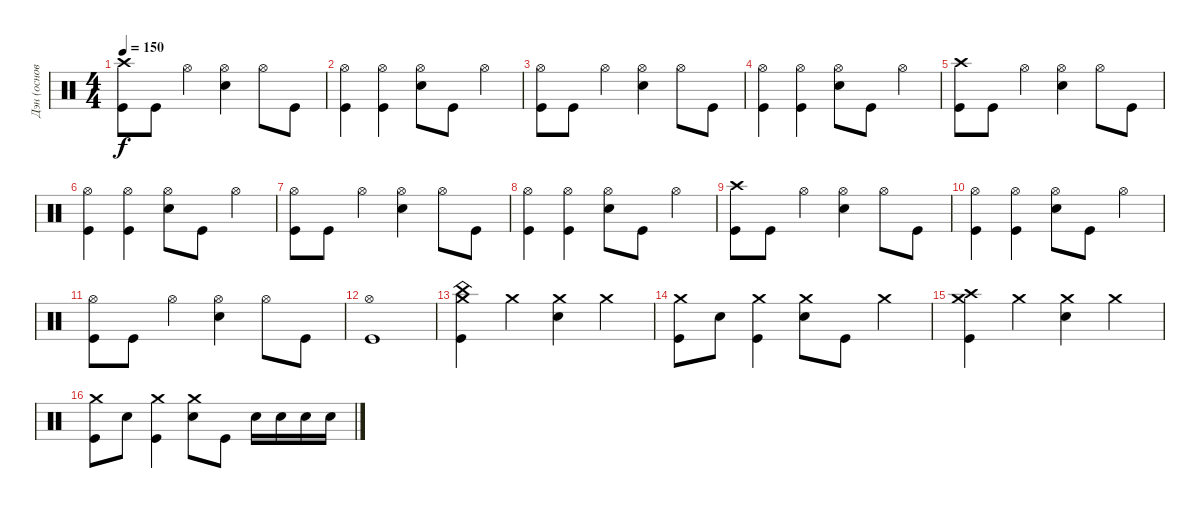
\track ("Дэн (основа)" "Дэн (основ") {instrument percussion}
\staff {score}
\articulation defaults
\ts (4 4)
\tempo 150
\clef neutral
\ks c
("Crash high (hit)" "Kick (hit)").8{dy f} "Kick (hit)".8 "Hi-Hat (open)".4 ("Hi-Hat (open)" "Electric Snare (hit)").4 "Hi-Hat (open)".8 "Kick (hit)".8 |
("Hi-Hat (open)" "Kick (hit)").4 ("Hi-Hat (open)" "Kick (hit)").4 ("Hi-Hat (open)" "Electric Snare (hit)").8 "Kick (hit)".8 "Hi-Hat (open)".4 |
("Hi-Hat (open)" "Kick (hit)").8 "Kick (hit)".8 "Hi-Hat (open)".4 ("Hi-Hat (open)" "Electric Snare (hit)").4 "Hi-Hat (open)".8 "Kick (hit)".8 |
("Hi-Hat (open)" "Kick (hit)").4 ("Hi-Hat (open)" "Kick (hit)").4 ("Hi-Hat (open)" "Electric Snare (hit)").8 "Kick (hit)".8 "Hi-Hat (open)".4 |
("Crash high (hit)" "Kick (hit)").8 "Kick (hit)".8 "Hi-Hat (open)".4 ("Hi-Hat (open)" "Electric Snare (hit)").4 "Hi-Hat (open)".8 "Kick (hit)".8 |
("Hi-Hat (open)" "Kick (hit)").4 ("Hi-Hat (open)" "Kick (hit)").4 ("Hi-Hat (open)" "Electric Snare (hit)").8 "Kick (hit)".8 "Hi-Hat (open)".4 |
("Hi-Hat (open)" "Kick (hit)").8 "Kick (hit)".8 "Hi-Hat (open)".4 ("Hi-Hat (open)" "Electric Snare (hit)").4 "Hi-Hat (open)".8 "Kick (hit)".8 |
("Hi-Hat (open)" "Kick (hit)").4 ("Hi-Hat (open)" "Kick (hit)").4 ("Hi-Hat (open)" "Electric Snare (hit)").8 "Kick (hit)".8 "Hi-Hat (open)".4 |
("Crash high (hit)" "Kick (hit)").8 "Kick (hit)".8 "Hi-Hat (open)".4 ("Hi-Hat (open)" "Electric Snare (hit)").4 "Hi-Hat (open)".8 "Kick (hit)".8 |
("Hi-Hat (open)" "Kick (hit)").4 ("Hi-Hat (open)" "Kick (hit)").4 ("Hi-Hat (open)" "Electric Snare (hit)").8 "Kick (hit)".8 "Hi-Hat (open)".4 |
("Hi-Hat (open)" "Kick (hit)").8 "Kick (hit)".8 "Hi-Hat (open)".4 ("Hi-Hat (open)" "Electric Snare (hit)").4 "Hi-Hat (open)".8 "Kick (hit)".8 |
("Hi-Hat (open)" "Kick (hit)").1 |
("China (hit)" "Crash medium (hit)" "Kick (hit)").4 "Crash medium (hit)".4 ("Crash medium (hit)" "Electric Snare (hit)").4 "Crash medium (hit)".4 |
("Crash medium (hit)" "Kick (hit)").8 "Electric Snare (hit)".8 ("Crash medium (hit)" "Kick (hit)").4 ("Crash medium (hit)" "Electric Snare (hit)").8 "Kick (hit)".8 "Crash medium (hit)".4 |
("Crash high (hit)" "Crash medium (hit)" "Kick (hit)").4 "Crash medium (hit)".4 ("Crash medium (hit)" "Electric Snare (hit)").4 "Crash medium (hit)".4 |
("Crash medium (hit)" "Kick (hit)").8 "Electric Snare (hit)".8 ("Crash medium (hit)" "Kick (hit)").4 ("Crash medium (hit)" "Electric Snare (hit)").8 "Kick (hit)".8 "Electric Snare (hit)".16 "Electric Snare (hit)".16 "Electric Snare (hit)".16 "Electric Snare (hit)".16
